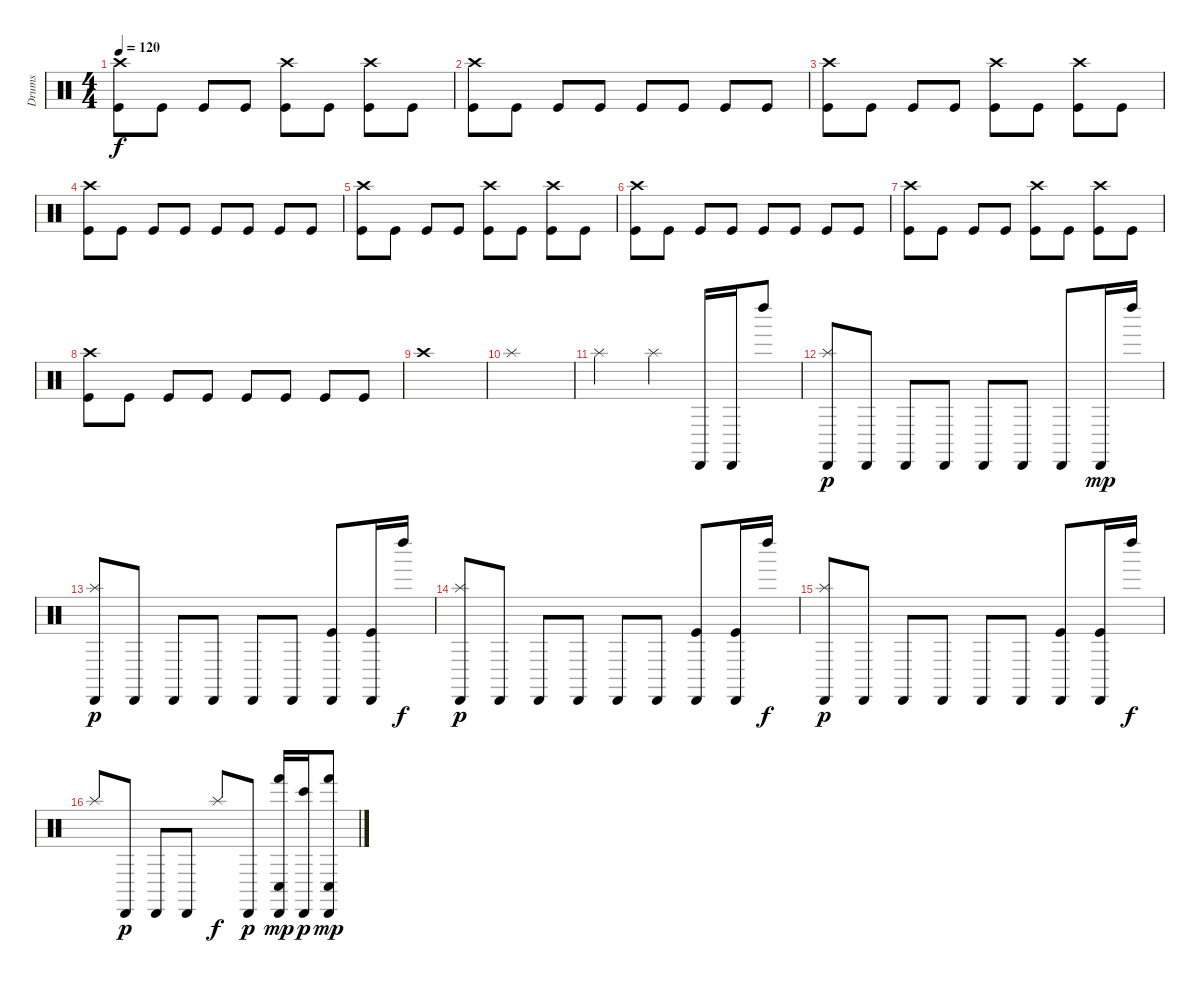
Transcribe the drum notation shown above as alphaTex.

\track ("Drums" "Drums") {instrument percussion}
\staff {score}
\articulation defaults
\ts (4 4)
\tempo 120
\clef neutral
\ks c
("Kick (hit)" "Crash high (hit)").8{dy f} "Kick (hit)".8 "Kick (hit)".8 "Kick (hit)".8 ("Kick (hit)" "Crash high (hit)").8 "Kick (hit)".8 ("Kick (hit)" "Crash high (hit)").8 "Kick (hit)".8 |
("Kick (hit)" "Crash high (hit)").8 "Kick (hit)".8 "Kick (hit)".8 "Kick (hit)".8 "Kick (hit)".8 "Kick (hit)".8 "Kick (hit)".8 "Kick (hit)".8 |
("Kick (hit)" "Crash high (hit)").8 "Kick (hit)".8 "Kick (hit)".8 "Kick (hit)".8 ("Kick (hit)" "Crash high (hit)").8 "Kick (hit)".8 ("Kick (hit)" "Crash high (hit)").8 "Kick (hit)".8 |
("Kick (hit)" "Crash high (hit)").8 "Kick (hit)".8 "Kick (hit)".8 "Kick (hit)".8 "Kick (hit)".8 "Kick (hit)".8 "Kick (hit)".8 "Kick (hit)".8 |
("Kick (hit)" "Crash high (hit)").8 "Kick (hit)".8 "Kick (hit)".8 "Kick (hit)".8 ("Kick (hit)" "Crash high (hit)").8 "Kick (hit)".8 ("Kick (hit)" "Crash high (hit)").8 "Kick (hit)".8 |
("Kick (hit)" "Crash high (hit)").8 "Kick (hit)".8 "Kick (hit)".8 "Kick (hit)".8 "Kick (hit)".8 "Kick (hit)".8 "Kick (hit)".8 "Kick (hit)".8 |
("Kick (hit)" "Crash high (hit)").8 "Kick (hit)".8 "Kick (hit)".8 "Kick (hit)".8 ("Kick (hit)" "Crash high (hit)").8 "Kick (hit)".8 ("Kick (hit)" "Crash high (hit)").8 "Kick (hit)".8 |
("Kick (hit)" "Crash high (hit)").8 "Kick (hit)".8 "Kick (hit)".8 "Kick (hit)".8 "Kick (hit)".8 "Kick (hit)".8 "Kick (hit)".8 "Kick (hit)".8 |
"Crash high (hit)".1 |
"Splash (hit)".1 |
"Splash (hit)".2 "Splash (hit)".4 "Cabasa (hit)".16 "Cabasa (hit)".16 "Left Maraca (hit)".8 |
("Cabasa (hit)" "Splash (hit)").8{dy p} "Cabasa (hit)".8 "Cabasa (hit)".8 "Cabasa (hit)".8 "Cabasa (hit)".8 "Cabasa (hit)".8 "Cabasa (hit)".8 "Cabasa (hit)".16{dy mp} "Left Maraca (hit)".16 |
("Cabasa (hit)" "Splash (hit)").8{dy p} "Cabasa (hit)".8 "Cabasa (hit)".8 "Cabasa (hit)".8 "Cabasa (hit)".8 "Cabasa (hit)".8 ("Kick (hit)" "Cabasa (hit)").8 ("Kick (hit)" "Cabasa (hit)").16 "Left Maraca (hit)".16{dy f} |
("Cabasa (hit)" "Splash (hit)").8{dy p} "Cabasa (hit)".8 "Cabasa (hit)".8 "Cabasa (hit)".8 "Cabasa (hit)".8 "Cabasa (hit)".8 ("Kick (hit)" "Cabasa (hit)").8 ("Kick (hit)" "Cabasa (hit)").16 "Left Maraca (hit)".16{dy f} |
("Cabasa (hit)" "Splash (hit)").8{dy p} "Cabasa (hit)".8 "Cabasa (hit)".8 "Cabasa (hit)".8 "Cabasa (hit)".8 "Cabasa (hit)".8 ("Kick (hit)" "Cabasa (hit)").8 ("Kick (hit)" "Cabasa (hit)").16 "Left Maraca (hit)".16{dy f} |
"Splash (hit)".8 "Cabasa (hit)".8{dy p} "Cabasa (hit)".8 "Cabasa (hit)".8 "Splash (hit)".8{dy f} "Cabasa (hit)".8{dy p} ("Conga low (hit)" "Cabasa (hit)" "Hand (hit)").16{dy mp} ("Bongo High (hit)" "Cabasa (hit)").16{dy p} ("Hand (hit)" "Cabasa (hit)" "Conga low (hit)").8{dy mp}
